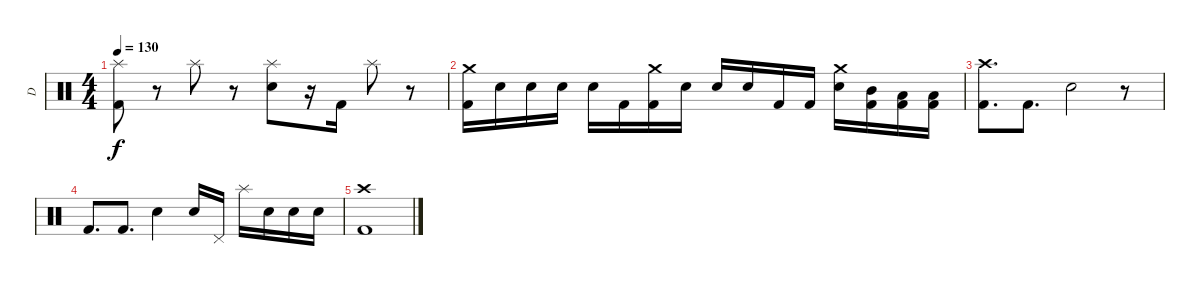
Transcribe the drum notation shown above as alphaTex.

\track ("D" "D") {instrument percussion}
\staff {score}
\articulation defaults
\ts (4 4)
\tempo 130
\clef neutral
\ks c
("Kick (hit) 2" "Splash (hit)").8{dy f} r.8 "Splash (hit)".8 r.8 ("Electric Snare (hit)" "Splash (hit)").8 r.16 "Kick (hit) 2".16 "Splash (hit)".8 r.8 |
("Crash medium (hit)" "Kick (hit) 2").16 "Electric Snare (hit)".16 "Electric Snare (hit)".16 "Electric Snare (hit)".16 "Electric Snare (hit)".16 "Kick (hit) 2".16 ("Crash medium (hit)" "Kick (hit) 2").16 "Electric Snare (hit)".16 "Electric Snare (hit)".16 "Electric Snare (hit)".16 "Kick (hit) 2".16 "Kick (hit) 2".16 ("Crash medium (hit)" "Electric Snare (hit)").16 ("Mid Tom (hit)" "Kick (hit) 2").16 ("Low Tom (hit)" "Kick (hit) 2").16 ("Low Floor Tom (hit)" "Kick (hit) 2").16 |
("Crash high (hit)" "Kick (hit) 2").8{d} "Kick (hit) 2".8{d} "Electric Snare (hit)".2 r.8 |
"Kick (hit) 2".8{d} "Kick (hit) 2".8{d} "Electric Snare (hit)".4 "Electric Snare (hit)".16 "Pedal Hi-Hat (hit)".16 "Splash (hit)".16 "Electric Snare (hit)".16 "Electric Snare (hit)".16 "Electric Snare (hit)".16 |
("Crash high (hit)" "Kick (hit) 2").1
